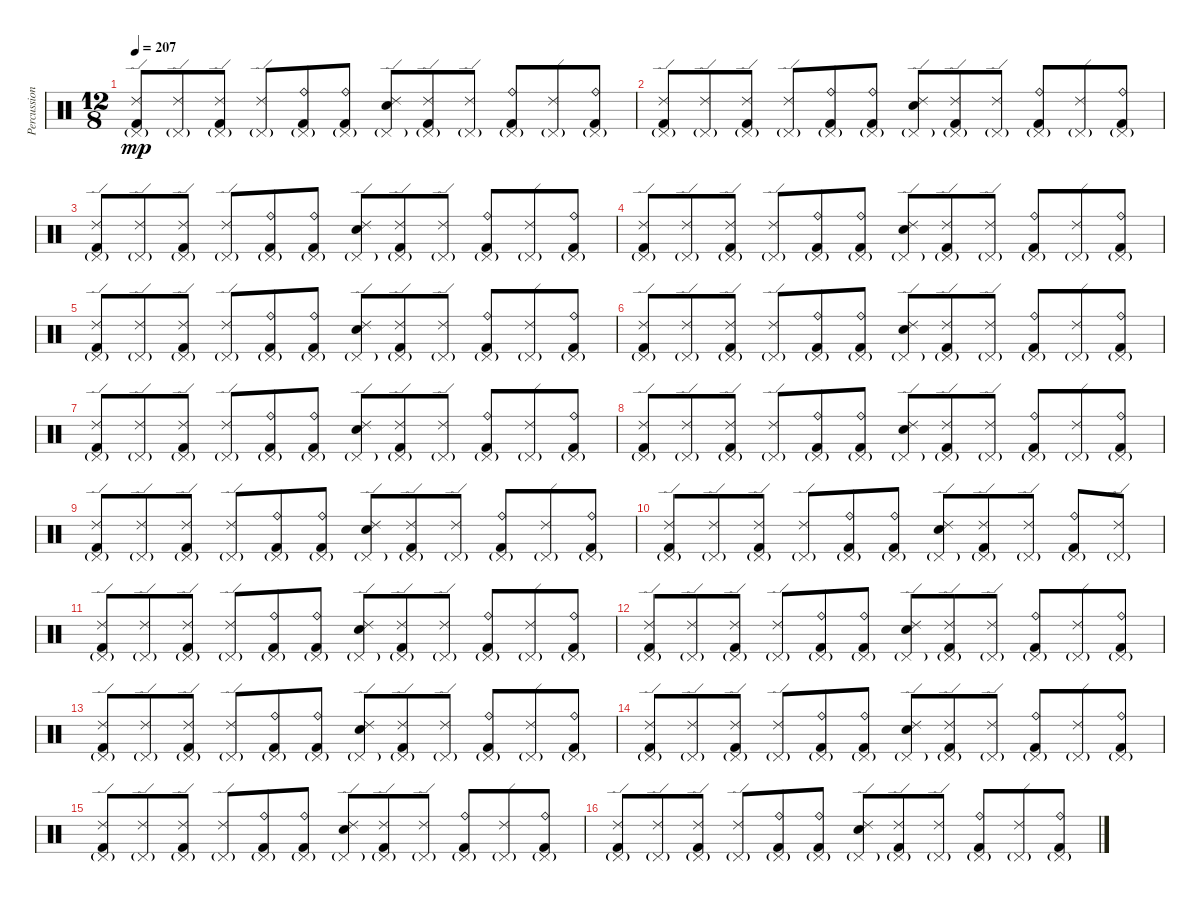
\track ("Percussion" "Percussion") {instrument percussion}
\staff {score}
\articulation defaults
\ts (12 8)
\tempo 207
\clef neutral
\ks c
("Ride (edge) 2" "Pedal Hi-Hat (hit)"{g} "Kick (hit) 2").8{dy mp} ("Ride (edge) 2" "Pedal Hi-Hat (hit)"{g}).8 ("Ride (edge) 2" "Pedal Hi-Hat (hit)"{g} "Kick (hit) 2").8 ("Ride (edge) 2" "Pedal Hi-Hat (hit)"{g}).8 ("Ride (bell)" "Pedal Hi-Hat (hit)"{g} "Kick (hit) 2").8 ("Ride (bell)" "Pedal Hi-Hat (hit)"{g} "Kick (hit) 2").8 ("Ride (edge) 2" "Pedal Hi-Hat (hit)"{g} "Electric Snare (hit)").8 ("Ride (edge) 2" "Pedal Hi-Hat (hit)"{g} "Kick (hit) 2").8 ("Ride (edge) 2" "Pedal Hi-Hat (hit)"{g}).8 ("Ride (bell)" "Pedal Hi-Hat (hit)"{g} "Kick (hit) 2").8 ("Ride (edge) 2" "Pedal Hi-Hat (hit)"{g}).8 ("Ride (bell)" "Pedal Hi-Hat (hit)"{g} "Kick (hit) 2").8 |
("Ride (edge) 2" "Pedal Hi-Hat (hit)"{g} "Kick (hit) 2").8 ("Ride (edge) 2" "Pedal Hi-Hat (hit)"{g}).8 ("Ride (edge) 2" "Pedal Hi-Hat (hit)"{g} "Kick (hit) 2").8 ("Ride (edge) 2" "Pedal Hi-Hat (hit)"{g}).8 ("Ride (bell)" "Pedal Hi-Hat (hit)"{g} "Kick (hit) 2").8 ("Ride (bell)" "Pedal Hi-Hat (hit)"{g} "Kick (hit) 2").8 ("Ride (edge) 2" "Pedal Hi-Hat (hit)"{g} "Electric Snare (hit)").8 ("Ride (edge) 2" "Pedal Hi-Hat (hit)"{g} "Kick (hit) 2").8 ("Ride (edge) 2" "Pedal Hi-Hat (hit)"{g}).8 ("Ride (bell)" "Pedal Hi-Hat (hit)"{g} "Kick (hit) 2").8 ("Ride (edge) 2" "Pedal Hi-Hat (hit)"{g}).8 ("Ride (bell)" "Pedal Hi-Hat (hit)"{g} "Kick (hit) 2").8 |
("Ride (edge) 2" "Pedal Hi-Hat (hit)"{g} "Kick (hit) 2").8 ("Ride (edge) 2" "Pedal Hi-Hat (hit)"{g}).8 ("Ride (edge) 2" "Pedal Hi-Hat (hit)"{g} "Kick (hit) 2").8 ("Ride (edge) 2" "Pedal Hi-Hat (hit)"{g}).8 ("Ride (bell)" "Pedal Hi-Hat (hit)"{g} "Kick (hit) 2").8 ("Ride (bell)" "Pedal Hi-Hat (hit)"{g} "Kick (hit) 2").8 ("Ride (edge) 2" "Pedal Hi-Hat (hit)"{g} "Electric Snare (hit)").8 ("Ride (edge) 2" "Pedal Hi-Hat (hit)"{g} "Kick (hit) 2").8 ("Ride (edge) 2" "Pedal Hi-Hat (hit)"{g}).8 ("Ride (bell)" "Pedal Hi-Hat (hit)"{g} "Kick (hit) 2").8 ("Ride (edge) 2" "Pedal Hi-Hat (hit)"{g}).8 ("Ride (bell)" "Pedal Hi-Hat (hit)"{g} "Kick (hit) 2").8 |
("Ride (edge) 2" "Pedal Hi-Hat (hit)"{g} "Kick (hit) 2").8 ("Ride (edge) 2" "Pedal Hi-Hat (hit)"{g}).8 ("Ride (edge) 2" "Pedal Hi-Hat (hit)"{g} "Kick (hit) 2").8 ("Ride (edge) 2" "Pedal Hi-Hat (hit)"{g}).8 ("Ride (bell)" "Pedal Hi-Hat (hit)"{g} "Kick (hit) 2").8 ("Ride (bell)" "Pedal Hi-Hat (hit)"{g} "Kick (hit) 2").8 ("Ride (edge) 2" "Pedal Hi-Hat (hit)"{g} "Electric Snare (hit)").8 ("Ride (edge) 2" "Pedal Hi-Hat (hit)"{g} "Kick (hit) 2").8 ("Ride (edge) 2" "Pedal Hi-Hat (hit)"{g}).8 ("Ride (bell)" "Pedal Hi-Hat (hit)"{g} "Kick (hit) 2").8 ("Ride (edge) 2" "Pedal Hi-Hat (hit)"{g}).8 ("Ride (bell)" "Pedal Hi-Hat (hit)"{g} "Kick (hit) 2").8 |
("Ride (edge) 2" "Pedal Hi-Hat (hit)"{g} "Kick (hit) 2").8 ("Ride (edge) 2" "Pedal Hi-Hat (hit)"{g}).8 ("Ride (edge) 2" "Pedal Hi-Hat (hit)"{g} "Kick (hit) 2").8 ("Ride (edge) 2" "Pedal Hi-Hat (hit)"{g}).8 ("Ride (bell)" "Pedal Hi-Hat (hit)"{g} "Kick (hit) 2").8 ("Ride (bell)" "Pedal Hi-Hat (hit)"{g} "Kick (hit) 2").8 ("Ride (edge) 2" "Pedal Hi-Hat (hit)"{g} "Electric Snare (hit)").8 ("Ride (edge) 2" "Pedal Hi-Hat (hit)"{g} "Kick (hit) 2").8 ("Ride (edge) 2" "Pedal Hi-Hat (hit)"{g}).8 ("Ride (bell)" "Pedal Hi-Hat (hit)"{g} "Kick (hit) 2").8 ("Ride (edge) 2" "Pedal Hi-Hat (hit)"{g}).8 ("Ride (bell)" "Pedal Hi-Hat (hit)"{g} "Kick (hit) 2").8 |
("Ride (edge) 2" "Pedal Hi-Hat (hit)"{g} "Kick (hit) 2").8 ("Ride (edge) 2" "Pedal Hi-Hat (hit)"{g}).8 ("Ride (edge) 2" "Pedal Hi-Hat (hit)"{g} "Kick (hit) 2").8 ("Ride (edge) 2" "Pedal Hi-Hat (hit)"{g}).8 ("Ride (bell)" "Pedal Hi-Hat (hit)"{g} "Kick (hit) 2").8 ("Ride (bell)" "Pedal Hi-Hat (hit)"{g} "Kick (hit) 2").8 ("Ride (edge) 2" "Pedal Hi-Hat (hit)"{g} "Electric Snare (hit)").8 ("Ride (edge) 2" "Pedal Hi-Hat (hit)"{g} "Kick (hit) 2").8 ("Ride (edge) 2" "Pedal Hi-Hat (hit)"{g}).8 ("Ride (bell)" "Pedal Hi-Hat (hit)"{g} "Kick (hit) 2").8 ("Ride (edge) 2" "Pedal Hi-Hat (hit)"{g}).8 ("Ride (bell)" "Pedal Hi-Hat (hit)"{g} "Kick (hit) 2").8 |
("Ride (edge) 2" "Pedal Hi-Hat (hit)"{g} "Kick (hit) 2").8 ("Ride (edge) 2" "Pedal Hi-Hat (hit)"{g}).8 ("Ride (edge) 2" "Pedal Hi-Hat (hit)"{g} "Kick (hit) 2").8 ("Ride (edge) 2" "Pedal Hi-Hat (hit)"{g}).8 ("Ride (bell)" "Pedal Hi-Hat (hit)"{g} "Kick (hit) 2").8 ("Ride (bell)" "Pedal Hi-Hat (hit)"{g} "Kick (hit) 2").8 ("Ride (edge) 2" "Pedal Hi-Hat (hit)"{g} "Electric Snare (hit)").8 ("Ride (edge) 2" "Pedal Hi-Hat (hit)"{g} "Kick (hit) 2").8 ("Ride (edge) 2" "Pedal Hi-Hat (hit)"{g}).8 ("Ride (bell)" "Pedal Hi-Hat (hit)"{g} "Kick (hit) 2").8 ("Ride (edge) 2" "Pedal Hi-Hat (hit)"{g}).8 ("Ride (bell)" "Pedal Hi-Hat (hit)"{g} "Kick (hit) 2").8 |
("Ride (edge) 2" "Pedal Hi-Hat (hit)"{g} "Kick (hit) 2").8 ("Ride (edge) 2" "Pedal Hi-Hat (hit)"{g}).8 ("Ride (edge) 2" "Pedal Hi-Hat (hit)"{g} "Kick (hit) 2").8 ("Ride (edge) 2" "Pedal Hi-Hat (hit)"{g}).8 ("Ride (bell)" "Pedal Hi-Hat (hit)"{g} "Kick (hit) 2").8 ("Ride (bell)" "Pedal Hi-Hat (hit)"{g} "Kick (hit) 2").8 ("Ride (edge) 2" "Pedal Hi-Hat (hit)"{g} "Electric Snare (hit)").8 ("Ride (edge) 2" "Pedal Hi-Hat (hit)"{g} "Kick (hit) 2").8 ("Ride (edge) 2" "Pedal Hi-Hat (hit)"{g}).8 ("Ride (bell)" "Pedal Hi-Hat (hit)"{g} "Kick (hit) 2").8 ("Ride (edge) 2" "Pedal Hi-Hat (hit)"{g}).8 ("Ride (bell)" "Pedal Hi-Hat (hit)"{g} "Kick (hit) 2").8 |
("Ride (edge) 2" "Pedal Hi-Hat (hit)"{g} "Kick (hit) 2").8 ("Ride (edge) 2" "Pedal Hi-Hat (hit)"{g}).8 ("Ride (edge) 2" "Pedal Hi-Hat (hit)"{g} "Kick (hit) 2").8 ("Ride (edge) 2" "Pedal Hi-Hat (hit)"{g}).8 ("Ride (bell)" "Pedal Hi-Hat (hit)"{g} "Kick (hit) 2").8 ("Ride (bell)" "Pedal Hi-Hat (hit)"{g} "Kick (hit) 2").8 ("Ride (edge) 2" "Pedal Hi-Hat (hit)"{g} "Electric Snare (hit)").8 ("Ride (edge) 2" "Pedal Hi-Hat (hit)"{g} "Kick (hit) 2").8 ("Ride (edge) 2" "Pedal Hi-Hat (hit)"{g}).8 ("Ride (bell)" "Pedal Hi-Hat (hit)"{g} "Kick (hit) 2").8 ("Ride (edge) 2" "Pedal Hi-Hat (hit)"{g}).8 ("Ride (bell)" "Pedal Hi-Hat (hit)"{g} "Kick (hit) 2").8 |
("Ride (edge) 2" "Pedal Hi-Hat (hit)"{g} "Kick (hit) 2").8 ("Ride (edge) 2" "Pedal Hi-Hat (hit)"{g}).8 ("Ride (edge) 2" "Pedal Hi-Hat (hit)"{g} "Kick (hit) 2").8 ("Ride (edge) 2" "Pedal Hi-Hat (hit)"{g}).8 ("Ride (bell)" "Pedal Hi-Hat (hit)"{g} "Kick (hit) 2").8 ("Ride (bell)" "Pedal Hi-Hat (hit)"{g} "Kick (hit) 2").8 ("Ride (edge) 2" "Pedal Hi-Hat (hit)"{g} "Electric Snare (hit)").8 ("Ride (edge) 2" "Pedal Hi-Hat (hit)"{g} "Kick (hit) 2").8 ("Ride (edge) 2" "Pedal Hi-Hat (hit)"{g}).8 ("Ride (bell)" "Pedal Hi-Hat (hit)"{g} "Kick (hit) 2").8 ("Ride (edge) 2" "Pedal Hi-Hat (hit)"{g}).8 |
("Ride (edge) 2" "Pedal Hi-Hat (hit)"{g} "Kick (hit) 2").8 ("Ride (edge) 2" "Pedal Hi-Hat (hit)"{g}).8 ("Ride (edge) 2" "Pedal Hi-Hat (hit)"{g} "Kick (hit) 2").8 ("Ride (edge) 2" "Pedal Hi-Hat (hit)"{g}).8 ("Ride (bell)" "Pedal Hi-Hat (hit)"{g} "Kick (hit) 2").8 ("Ride (bell)" "Pedal Hi-Hat (hit)"{g} "Kick (hit) 2").8 ("Ride (edge) 2" "Pedal Hi-Hat (hit)"{g} "Electric Snare (hit)").8 ("Ride (edge) 2" "Pedal Hi-Hat (hit)"{g} "Kick (hit) 2").8 ("Ride (edge) 2" "Pedal Hi-Hat (hit)"{g}).8 ("Ride (bell)" "Pedal Hi-Hat (hit)"{g} "Kick (hit) 2").8 ("Ride (edge) 2" "Pedal Hi-Hat (hit)"{g}).8 ("Ride (bell)" "Pedal Hi-Hat (hit)"{g} "Kick (hit) 2").8 |
("Ride (edge) 2" "Pedal Hi-Hat (hit)"{g} "Kick (hit) 2").8 ("Ride (edge) 2" "Pedal Hi-Hat (hit)"{g}).8 ("Ride (edge) 2" "Pedal Hi-Hat (hit)"{g} "Kick (hit) 2").8 ("Ride (edge) 2" "Pedal Hi-Hat (hit)"{g}).8 ("Ride (bell)" "Pedal Hi-Hat (hit)"{g} "Kick (hit) 2").8 ("Ride (bell)" "Pedal Hi-Hat (hit)"{g} "Kick (hit) 2").8 ("Ride (edge) 2" "Pedal Hi-Hat (hit)"{g} "Electric Snare (hit)").8 ("Ride (edge) 2" "Pedal Hi-Hat (hit)"{g} "Kick (hit) 2").8 ("Ride (edge) 2" "Pedal Hi-Hat (hit)"{g}).8 ("Ride (bell)" "Pedal Hi-Hat (hit)"{g} "Kick (hit) 2").8 ("Ride (edge) 2" "Pedal Hi-Hat (hit)"{g}).8 ("Ride (bell)" "Pedal Hi-Hat (hit)"{g} "Kick (hit) 2").8 |
("Ride (edge) 2" "Pedal Hi-Hat (hit)"{g} "Kick (hit) 2").8 ("Ride (edge) 2" "Pedal Hi-Hat (hit)"{g}).8 ("Ride (edge) 2" "Pedal Hi-Hat (hit)"{g} "Kick (hit) 2").8 ("Ride (edge) 2" "Pedal Hi-Hat (hit)"{g}).8 ("Ride (bell)" "Pedal Hi-Hat (hit)"{g} "Kick (hit) 2").8 ("Ride (bell)" "Pedal Hi-Hat (hit)"{g} "Kick (hit) 2").8 ("Ride (edge) 2" "Pedal Hi-Hat (hit)"{g} "Electric Snare (hit)").8 ("Ride (edge) 2" "Pedal Hi-Hat (hit)"{g} "Kick (hit) 2").8 ("Ride (edge) 2" "Pedal Hi-Hat (hit)"{g}).8 ("Ride (bell)" "Pedal Hi-Hat (hit)"{g} "Kick (hit) 2").8 ("Ride (edge) 2" "Pedal Hi-Hat (hit)"{g}).8 ("Ride (bell)" "Pedal Hi-Hat (hit)"{g} "Kick (hit) 2").8 |
("Ride (edge) 2" "Pedal Hi-Hat (hit)"{g} "Kick (hit) 2").8 ("Ride (edge) 2" "Pedal Hi-Hat (hit)"{g}).8 ("Ride (edge) 2" "Pedal Hi-Hat (hit)"{g} "Kick (hit) 2").8 ("Ride (edge) 2" "Pedal Hi-Hat (hit)"{g}).8 ("Ride (bell)" "Pedal Hi-Hat (hit)"{g} "Kick (hit) 2").8 ("Ride (bell)" "Pedal Hi-Hat (hit)"{g} "Kick (hit) 2").8 ("Ride (edge) 2" "Pedal Hi-Hat (hit)"{g} "Electric Snare (hit)").8 ("Ride (edge) 2" "Pedal Hi-Hat (hit)"{g} "Kick (hit) 2").8 ("Ride (edge) 2" "Pedal Hi-Hat (hit)"{g}).8 ("Ride (bell)" "Pedal Hi-Hat (hit)"{g} "Kick (hit) 2").8 ("Ride (edge) 2" "Pedal Hi-Hat (hit)"{g}).8 ("Ride (bell)" "Pedal Hi-Hat (hit)"{g} "Kick (hit) 2").8 |
("Ride (edge) 2" "Pedal Hi-Hat (hit)"{g} "Kick (hit) 2").8 ("Ride (edge) 2" "Pedal Hi-Hat (hit)"{g}).8 ("Ride (edge) 2" "Pedal Hi-Hat (hit)"{g} "Kick (hit) 2").8 ("Ride (edge) 2" "Pedal Hi-Hat (hit)"{g}).8 ("Ride (bell)" "Pedal Hi-Hat (hit)"{g} "Kick (hit) 2").8 ("Ride (bell)" "Pedal Hi-Hat (hit)"{g} "Kick (hit) 2").8 ("Ride (edge) 2" "Pedal Hi-Hat (hit)"{g} "Electric Snare (hit)").8 ("Ride (edge) 2" "Pedal Hi-Hat (hit)"{g} "Kick (hit) 2").8 ("Ride (edge) 2" "Pedal Hi-Hat (hit)"{g}).8 ("Ride (bell)" "Pedal Hi-Hat (hit)"{g} "Kick (hit) 2").8 ("Ride (edge) 2" "Pedal Hi-Hat (hit)"{g}).8 ("Ride (bell)" "Pedal Hi-Hat (hit)"{g} "Kick (hit) 2").8 |
("Ride (edge) 2" "Pedal Hi-Hat (hit)"{g} "Kick (hit) 2").8 ("Ride (edge) 2" "Pedal Hi-Hat (hit)"{g}).8 ("Ride (edge) 2" "Pedal Hi-Hat (hit)"{g} "Kick (hit) 2").8 ("Ride (edge) 2" "Pedal Hi-Hat (hit)"{g}).8 ("Ride (bell)" "Pedal Hi-Hat (hit)"{g} "Kick (hit) 2").8 ("Ride (bell)" "Pedal Hi-Hat (hit)"{g} "Kick (hit) 2").8 ("Ride (edge) 2" "Pedal Hi-Hat (hit)"{g} "Electric Snare (hit)").8 ("Ride (edge) 2" "Pedal Hi-Hat (hit)"{g} "Kick (hit) 2").8 ("Ride (edge) 2" "Pedal Hi-Hat (hit)"{g}).8 ("Ride (bell)" "Pedal Hi-Hat (hit)"{g} "Kick (hit) 2").8 ("Ride (edge) 2" "Pedal Hi-Hat (hit)"{g}).8 ("Ride (bell)" "Pedal Hi-Hat (hit)"{g} "Kick (hit) 2").8
